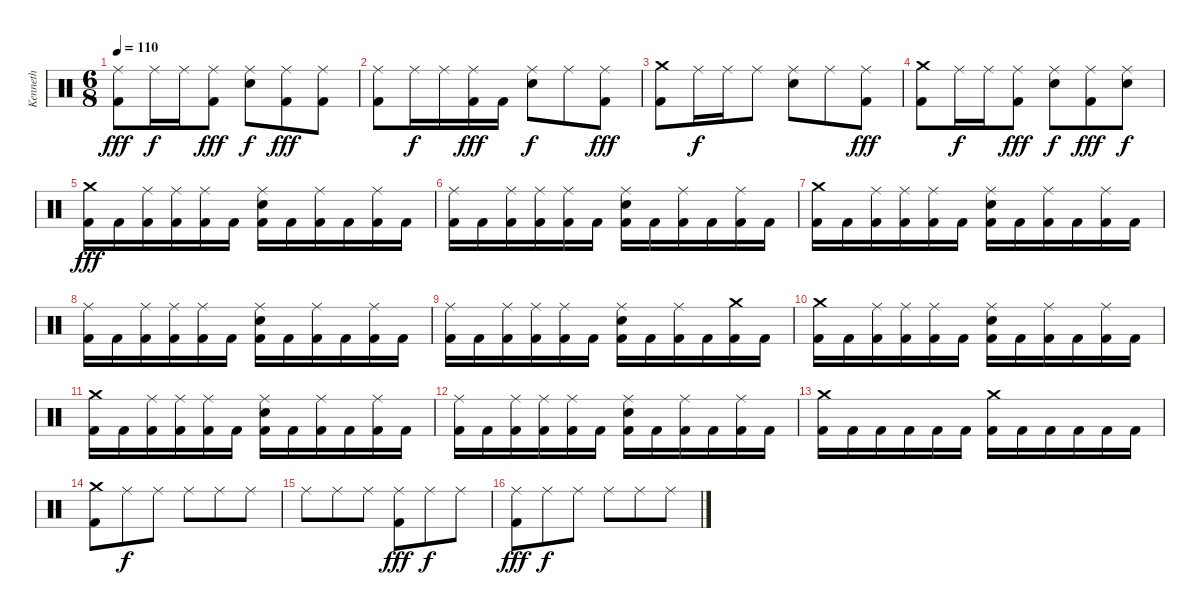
\track ("Kenneth" "Kenneth") {instrument percussion}
\staff {score}
\articulation defaults
\ts (6 8)
\tempo 110
\clef neutral
\ks c
("Ride (middle)" "Kick (hit) 2").8{dy fff} "Ride (middle)".16{dy f} "Ride (middle)".16 ("Ride (middle)" "Kick (hit) 2").8{dy fff} ("Ride (middle)" "Snare (hit) 2").8{dy f} ("Ride (middle)" "Kick (hit) 2").8{dy fff} ("Ride (middle)" "Kick (hit) 2").8 |
("Ride (middle)" "Kick (hit) 2").8 "Ride (middle)".16{dy f} "Ride (middle)".16 ("Ride (middle)" "Kick (hit) 2").16{dy fff} "Kick (hit) 2".16 ("Ride (middle)" "Snare (hit) 2").8{dy f} "Ride (middle)".8 ("Ride (middle)" "Kick (hit) 2").8{dy fff} |
("Crash medium (hit)" "Kick (hit) 2").8 "Ride (middle)".16{dy f} "Ride (middle)".16 "Ride (middle)".8 ("Ride (middle)" "Snare (hit) 2").8 "Ride (middle)".8 ("Ride (middle)" "Kick (hit) 2").8{dy fff} |
("Crash medium (hit)" "Kick (hit) 2").8 "Ride (middle)".16{dy f} "Ride (middle)".16 ("Ride (middle)" "Kick (hit) 2").8{dy fff} ("Ride (middle)" "Snare (hit) 2").8{dy f} ("Ride (middle)" "Kick (hit) 2").8{dy fff} ("Ride (middle)" "Snare (hit) 2").8{dy f} |
("Crash medium (hit)" "Kick (hit) 2").16{dy fff} "Kick (hit) 2".16 ("Ride (middle)" "Kick (hit) 2").16 ("Ride (middle)" "Kick (hit) 2").16 ("Ride (middle)" "Kick (hit) 2").16 "Kick (hit) 2".16 ("Ride (middle)" "Snare (hit) 2" "Kick (hit) 2").16 "Kick (hit) 2".16 ("Ride (middle)" "Kick (hit) 2").16 "Kick (hit) 2".16 ("Ride (middle)" "Kick (hit) 2").16 "Kick (hit) 2".16 |
("Ride (middle)" "Kick (hit) 2").16 "Kick (hit) 2".16 ("Ride (middle)" "Kick (hit) 2").16 ("Ride (middle)" "Kick (hit) 2").16 ("Ride (middle)" "Kick (hit) 2").16 "Kick (hit) 2".16 ("Ride (middle)" "Snare (hit) 2" "Kick (hit) 2").16 "Kick (hit) 2".16 ("Ride (middle)" "Kick (hit) 2").16 "Kick (hit) 2".16 ("Ride (middle)" "Kick (hit) 2").16 "Kick (hit) 2".16 |
("Crash medium (hit)" "Kick (hit) 2").16 "Kick (hit) 2".16 ("Ride (middle)" "Kick (hit) 2").16 ("Ride (middle)" "Kick (hit) 2").16 ("Ride (middle)" "Kick (hit) 2").16 "Kick (hit) 2".16 ("Ride (middle)" "Snare (hit) 2" "Kick (hit) 2").16 "Kick (hit) 2".16 ("Ride (middle)" "Kick (hit) 2").16 "Kick (hit) 2".16 ("Ride (middle)" "Kick (hit) 2").16 "Kick (hit) 2".16 |
("Ride (middle)" "Kick (hit) 2").16 "Kick (hit) 2".16 ("Ride (middle)" "Kick (hit) 2").16 ("Ride (middle)" "Kick (hit) 2").16 ("Ride (middle)" "Kick (hit) 2").16 "Kick (hit) 2".16 ("Ride (middle)" "Snare (hit) 2" "Kick (hit) 2").16 "Kick (hit) 2".16 ("Ride (middle)" "Kick (hit) 2").16 "Kick (hit) 2".16 ("Ride (middle)" "Kick (hit) 2").16 "Kick (hit) 2".16 |
("Ride (middle)" "Kick (hit) 2").16 "Kick (hit) 2".16 ("Ride (middle)" "Kick (hit) 2").16 ("Ride (middle)" "Kick (hit) 2").16 ("Ride (middle)" "Kick (hit) 2").16 "Kick (hit) 2".16 ("Ride (middle)" "Snare (hit) 2" "Kick (hit) 2").16 "Kick (hit) 2".16 ("Ride (middle)" "Kick (hit) 2").16 "Kick (hit) 2".16 ("Crash medium (hit)" "Kick (hit) 2").16 "Kick (hit) 2".16 |
("Crash medium (hit)" "Kick (hit) 2").16 "Kick (hit) 2".16 ("Ride (middle)" "Kick (hit) 2").16 ("Ride (middle)" "Kick (hit) 2").16 ("Ride (middle)" "Kick (hit) 2").16 "Kick (hit) 2".16 ("Ride (middle)" "Snare (hit) 2" "Kick (hit) 2").16 "Kick (hit) 2".16 ("Ride (middle)" "Kick (hit) 2").16 "Kick (hit) 2".16 ("Ride (middle)" "Kick (hit) 2").16 "Kick (hit) 2".16 |
("Crash medium (hit)" "Kick (hit) 2").16 "Kick (hit) 2".16 ("Ride (middle)" "Kick (hit) 2").16 ("Ride (middle)" "Kick (hit) 2").16 ("Ride (middle)" "Kick (hit) 2").16 "Kick (hit) 2".16 ("Ride (middle)" "Snare (hit) 2" "Kick (hit) 2").16 "Kick (hit) 2".16 ("Ride (middle)" "Kick (hit) 2").16 "Kick (hit) 2".16 ("Ride (middle)" "Kick (hit) 2").16 "Kick (hit) 2".16 |
("Ride (middle)" "Kick (hit) 2").16 "Kick (hit) 2".16 ("Ride (middle)" "Kick (hit) 2").16 ("Ride (middle)" "Kick (hit) 2").16 ("Ride (middle)" "Kick (hit) 2").16 "Kick (hit) 2".16 ("Ride (middle)" "Snare (hit) 2" "Kick (hit) 2").16 "Kick (hit) 2".16 ("Ride (middle)" "Kick (hit) 2").16 "Kick (hit) 2".16 ("Ride (middle)" "Kick (hit) 2").16 "Kick (hit) 2".16 |
("Crash medium (hit)" "Kick (hit) 2").16 "Kick (hit) 2".16 "Kick (hit) 2".16 "Kick (hit) 2".16 "Kick (hit) 2".16 "Kick (hit) 2".16 ("Crash medium (hit)" "Kick (hit) 2").16 "Kick (hit) 2".16 "Kick (hit) 2".16 "Kick (hit) 2".16 "Kick (hit) 2".16 "Kick (hit) 2".16 |
("Crash medium (hit)" "Kick (hit) 2").8 "Ride (middle)".8{dy f} "Ride (middle)".8 "Ride (middle)".8 "Ride (middle)".8 "Ride (middle)".8 |
"Ride (middle)".8 "Ride (middle)".8 "Ride (middle)".8 ("Ride (middle)" "Kick (hit) 2").8{dy fff} "Ride (middle)".8{dy f} "Ride (middle)".8 |
("Ride (middle)" "Kick (hit) 2").8{dy fff} "Ride (middle)".8{dy f} "Ride (middle)".8 "Ride (middle)".8 "Ride (middle)".8 "Ride (middle)".8
